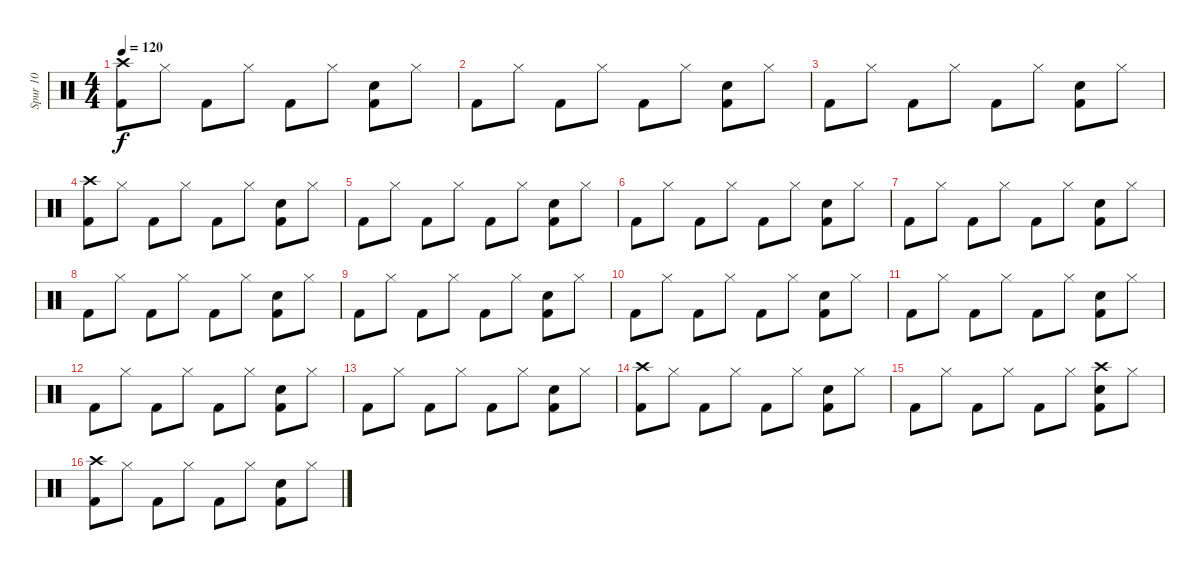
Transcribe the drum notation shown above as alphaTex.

\track ("Spur 10" "Spur 10") {instrument percussion}
\staff {score}
\articulation defaults
\ts (4 4)
\tempo 120
\clef neutral
\ks c
("Kick (hit) 2" "Crash high (hit)").8{dy f} "Hi-Hat (closed)".8 "Kick (hit) 2".8 "Hi-Hat (closed)".8 "Kick (hit) 2".8 "Hi-Hat (closed)".8 ("Kick (hit) 2" "Hand Clap (hit)").8 "Hi-Hat (closed)".8 |
"Kick (hit) 2".8 "Hi-Hat (closed)".8 "Kick (hit) 2".8 "Hi-Hat (closed)".8 "Kick (hit) 2".8 "Hi-Hat (closed)".8 ("Kick (hit) 2" "Hand Clap (hit)").8 "Hi-Hat (closed)".8 |
"Kick (hit) 2".8 "Hi-Hat (closed)".8 "Kick (hit) 2".8 "Hi-Hat (closed)".8 "Kick (hit) 2".8 "Hi-Hat (closed)".8 ("Kick (hit) 2" "Hand Clap (hit)").8 "Hi-Hat (closed)".8 |
("Kick (hit) 2" "Crash high (hit)").8 "Hi-Hat (closed)".8 "Kick (hit) 2".8 "Hi-Hat (closed)".8 "Kick (hit) 2".8 "Hi-Hat (closed)".8 ("Kick (hit) 2" "Hand Clap (hit)").8 "Hi-Hat (closed)".8 |
"Kick (hit) 2".8 "Hi-Hat (closed)".8 "Kick (hit) 2".8 "Hi-Hat (closed)".8 "Kick (hit) 2".8 "Hi-Hat (closed)".8 ("Kick (hit) 2" "Hand Clap (hit)").8 "Hi-Hat (closed)".8 |
"Kick (hit) 2".8 "Hi-Hat (closed)".8 "Kick (hit) 2".8 "Hi-Hat (closed)".8 "Kick (hit) 2".8 "Hi-Hat (closed)".8 ("Kick (hit) 2" "Hand Clap (hit)").8 "Hi-Hat (closed)".8 |
"Kick (hit) 2".8 "Hi-Hat (closed)".8 "Kick (hit) 2".8 "Hi-Hat (closed)".8 "Kick (hit) 2".8 "Hi-Hat (closed)".8 ("Kick (hit) 2" "Hand Clap (hit)").8 "Hi-Hat (closed)".8 |
"Kick (hit) 2".8 "Hi-Hat (closed)".8 "Kick (hit) 2".8 "Hi-Hat (closed)".8 "Kick (hit) 2".8 "Hi-Hat (closed)".8 ("Kick (hit) 2" "Hand Clap (hit)").8 "Hi-Hat (closed)".8 |
"Kick (hit) 2".8 "Hi-Hat (closed)".8 "Kick (hit) 2".8 "Hi-Hat (closed)".8 "Kick (hit) 2".8 "Hi-Hat (closed)".8 ("Kick (hit) 2" "Hand Clap (hit)").8 "Hi-Hat (closed)".8 |
"Kick (hit) 2".8 "Hi-Hat (closed)".8 "Kick (hit) 2".8 "Hi-Hat (closed)".8 "Kick (hit) 2".8 "Hi-Hat (closed)".8 ("Kick (hit) 2" "Hand Clap (hit)").8 "Hi-Hat (closed)".8 |
"Kick (hit) 2".8 "Hi-Hat (closed)".8 "Kick (hit) 2".8 "Hi-Hat (closed)".8 "Kick (hit) 2".8 "Hi-Hat (closed)".8 ("Kick (hit) 2" "Hand Clap (hit)").8 "Hi-Hat (closed)".8 |
"Kick (hit) 2".8 "Hi-Hat (closed)".8 "Kick (hit) 2".8 "Hi-Hat (closed)".8 "Kick (hit) 2".8 "Hi-Hat (closed)".8 ("Kick (hit) 2" "Hand Clap (hit)").8 "Hi-Hat (closed)".8 |
"Kick (hit) 2".8 "Hi-Hat (closed)".8 "Kick (hit) 2".8 "Hi-Hat (closed)".8 "Kick (hit) 2".8 "Hi-Hat (closed)".8 ("Kick (hit) 2" "Hand Clap (hit)").8 "Hi-Hat (closed)".8 |
("Kick (hit) 2" "Crash high (hit)").8 "Hi-Hat (closed)".8 "Kick (hit) 2".8 "Hi-Hat (closed)".8 "Kick (hit) 2".8 "Hi-Hat (closed)".8 ("Kick (hit) 2" "Hand Clap (hit)").8 "Hi-Hat (closed)".8 |
"Kick (hit) 2".8 "Hi-Hat (closed)".8 "Kick (hit) 2".8 "Hi-Hat (closed)".8 "Kick (hit) 2".8 "Hi-Hat (closed)".8 ("Kick (hit) 2" "Hand Clap (hit)" "Crash high (hit)").8 "Hi-Hat (closed)".8 |
("Crash high (hit)" "Kick (hit) 2").8 "Hi-Hat (closed)".8 "Kick (hit) 2".8 "Hi-Hat (closed)".8 "Kick (hit) 2".8 "Hi-Hat (closed)".8 ("Kick (hit) 2" "Hand Clap (hit)").8 "Hi-Hat (closed)".8
